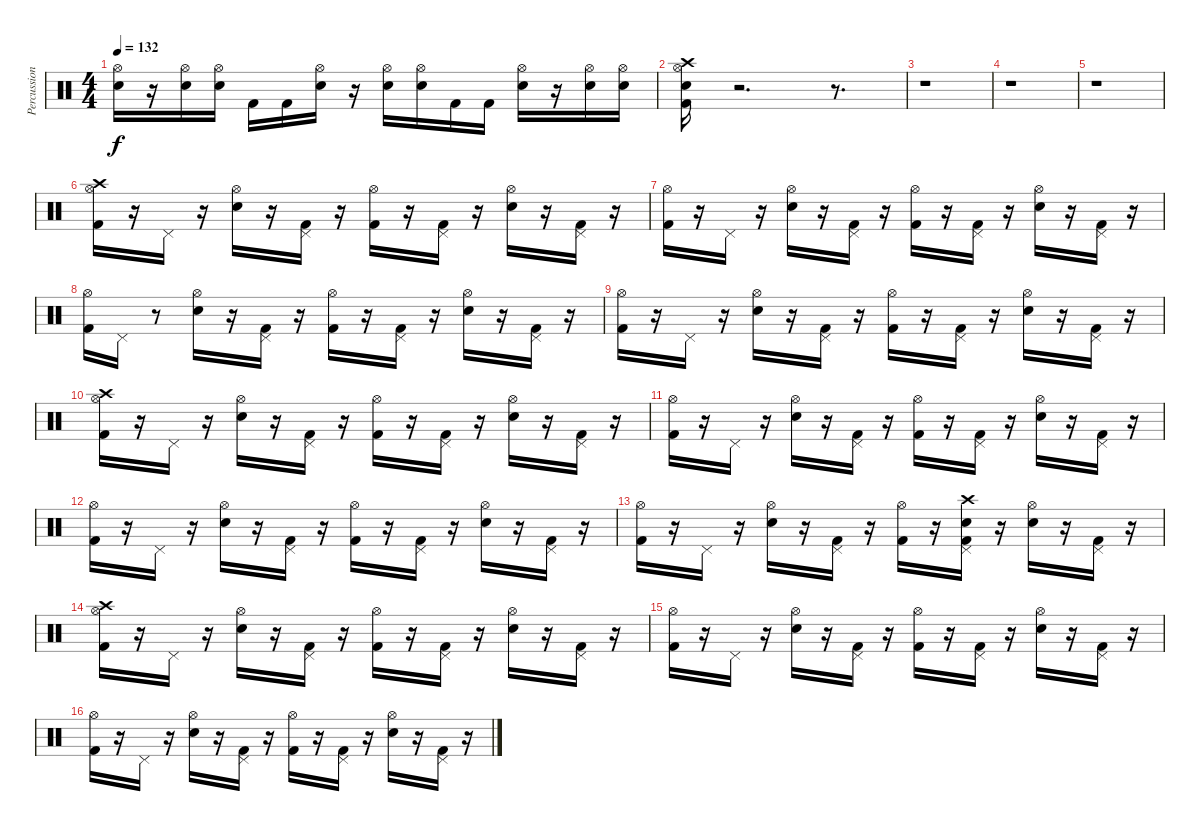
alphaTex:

\track ("Percussion" "Percussion") {instrument percussion}
\staff {score}
\articulation defaults
\ts (4 4)
\tempo 132
\clef neutral
\ks c
("Hi-Hat (open)" "Snare (hit) 2").16{dy f} r.16 ("Hi-Hat (open)" "Snare (hit) 2").16 ("Hi-Hat (open)" "Snare (hit) 2").16 "Kick (hit) 2".16 "Kick (hit) 2".16 ("Snare (hit) 2" "Hi-Hat (open)").16 r.16 ("Snare (hit) 2" "Hi-Hat (open)").16 ("Snare (hit) 2" "Hi-Hat (open)").16 "Kick (hit) 2".16 "Kick (hit) 2".16 ("Snare (hit) 2" "Hi-Hat (open)").16 r.16 ("Snare (hit) 2" "Hi-Hat (open)").16 ("Snare (hit) 2" "Hi-Hat (open)").16 |
("Hi-Hat (open)" "Crash high (hit)" "Kick (hit) 2" "Snare (hit) 2").16 r.2{d} r.8{d} |
r.1 |
r.1 |
r.1 |
("Crash high (hit)" "Kick (hit) 2" "Hi-Hat (open)").16 r.16 "Pedal Hi-Hat (hit)".16 r.16 ("Hi-Hat (open)" "Snare (hit) 2").16 r.16 ("Pedal Hi-Hat (hit)" "Kick (hit) 2").16 r.16 ("Hi-Hat (open)" "Kick (hit) 2").16 r.16 ("Pedal Hi-Hat (hit)" "Kick (hit) 2").16 r.16 ("Hi-Hat (open)" "Snare (hit) 2").16 r.16 ("Pedal Hi-Hat (hit)" "Kick (hit) 2").16 r.16 |
("Hi-Hat (open)" "Kick (hit) 2").16 r.16 "Pedal Hi-Hat (hit)".16 r.16 ("Hi-Hat (open)" "Snare (hit) 2").16 r.16 ("Pedal Hi-Hat (hit)" "Kick (hit) 2").16 r.16 ("Hi-Hat (open)" "Kick (hit) 2").16 r.16 ("Pedal Hi-Hat (hit)" "Kick (hit) 2").16 r.16 ("Hi-Hat (open)" "Snare (hit) 2").16 r.16 ("Pedal Hi-Hat (hit)" "Kick (hit) 2").16 r.16 |
("Hi-Hat (open)" "Kick (hit) 2").16 "Pedal Hi-Hat (hit)".16 r.8 ("Hi-Hat (open)" "Snare (hit) 2").16 r.16 ("Pedal Hi-Hat (hit)" "Kick (hit) 2").16 r.16 ("Hi-Hat (open)" "Kick (hit) 2").16 r.16 ("Pedal Hi-Hat (hit)" "Kick (hit) 2").16 r.16 ("Hi-Hat (open)" "Snare (hit) 2").16 r.16 ("Pedal Hi-Hat (hit)" "Kick (hit) 2").16 r.16 |
("Hi-Hat (open)" "Kick (hit) 2").16 r.16 "Pedal Hi-Hat (hit)".16 r.16 ("Hi-Hat (open)" "Snare (hit) 2").16 r.16 ("Pedal Hi-Hat (hit)" "Kick (hit) 2").16 r.16 ("Hi-Hat (open)" "Kick (hit) 2").16 r.16 ("Pedal Hi-Hat (hit)" "Kick (hit) 2").16 r.16 ("Hi-Hat (open)" "Snare (hit) 2").16 r.16 ("Pedal Hi-Hat (hit)" "Kick (hit) 2").16 r.16 |
("Kick (hit) 2" "Crash high (hit)" "Hi-Hat (open)").16 r.16 "Pedal Hi-Hat (hit)".16 r.16 ("Snare (hit) 2" "Hi-Hat (open)").16 r.16 ("Kick (hit) 2" "Pedal Hi-Hat (hit)").16 r.16 ("Kick (hit) 2" "Hi-Hat (open)").16 r.16 ("Kick (hit) 2" "Pedal Hi-Hat (hit)").16 r.16 ("Snare (hit) 2" "Hi-Hat (open)").16 r.16 ("Kick (hit) 2" "Pedal Hi-Hat (hit)").16 r.16 |
("Kick (hit) 2" "Hi-Hat (open)").16 r.16 "Pedal Hi-Hat (hit)".16 r.16 ("Snare (hit) 2" "Hi-Hat (open)").16 r.16 ("Kick (hit) 2" "Pedal Hi-Hat (hit)").16 r.16 ("Kick (hit) 2" "Hi-Hat (open)").16 r.16 ("Kick (hit) 2" "Pedal Hi-Hat (hit)").16 r.16 ("Snare (hit) 2" "Hi-Hat (open)").16 r.16 ("Kick (hit) 2" "Pedal Hi-Hat (hit)").16 r.16 |
("Kick (hit) 2" "Hi-Hat (open)").16 r.16 "Pedal Hi-Hat (hit)".16 r.16 ("Snare (hit) 2" "Hi-Hat (open)").16 r.16 ("Kick (hit) 2" "Pedal Hi-Hat (hit)").16 r.16 ("Kick (hit) 2" "Hi-Hat (open)").16 r.16 ("Kick (hit) 2" "Pedal Hi-Hat (hit)").16 r.16 ("Snare (hit) 2" "Hi-Hat (open)").16 r.16 ("Kick (hit) 2" "Pedal Hi-Hat (hit)").16 r.16 |
("Kick (hit) 2" "Hi-Hat (open)").16 r.16 "Pedal Hi-Hat (hit)".16 r.16 ("Snare (hit) 2" "Hi-Hat (open)").16 r.16 ("Kick (hit) 2" "Pedal Hi-Hat (hit)").16 r.16 ("Kick (hit) 2" "Hi-Hat (open)").16 r.16 ("Kick (hit) 2" "Pedal Hi-Hat (hit)" "Electric Snare (hit)" "Crash high (hit)").16 r.16 ("Snare (hit) 2" "Hi-Hat (open)").16 r.16 ("Kick (hit) 2" "Pedal Hi-Hat (hit)").16 r.16 |
("Kick (hit) 2" "Crash high (hit)" "Hi-Hat (open)").16 r.16 "Pedal Hi-Hat (hit)".16 r.16 ("Snare (hit) 2" "Hi-Hat (open)").16 r.16 ("Kick (hit) 2" "Pedal Hi-Hat (hit)").16 r.16 ("Kick (hit) 2" "Hi-Hat (open)").16 r.16 ("Kick (hit) 2" "Pedal Hi-Hat (hit)").16 r.16 ("Snare (hit) 2" "Hi-Hat (open)").16 r.16 ("Kick (hit) 2" "Pedal Hi-Hat (hit)").16 r.16 |
("Kick (hit) 2" "Hi-Hat (open)").16 r.16 "Pedal Hi-Hat (hit)".16 r.16 ("Snare (hit) 2" "Hi-Hat (open)").16 r.16 ("Kick (hit) 2" "Pedal Hi-Hat (hit)").16 r.16 ("Kick (hit) 2" "Hi-Hat (open)").16 r.16 ("Kick (hit) 2" "Pedal Hi-Hat (hit)").16 r.16 ("Snare (hit) 2" "Hi-Hat (open)").16 r.16 ("Kick (hit) 2" "Pedal Hi-Hat (hit)").16 r.16 |
("Kick (hit) 2" "Hi-Hat (open)").16 r.16 "Pedal Hi-Hat (hit)".16 r.16 ("Snare (hit) 2" "Hi-Hat (open)").16 r.16 ("Kick (hit) 2" "Pedal Hi-Hat (hit)").16 r.16 ("Kick (hit) 2" "Hi-Hat (open)").16 r.16 ("Kick (hit) 2" "Pedal Hi-Hat (hit)").16 r.16 ("Snare (hit) 2" "Hi-Hat (open)").16 r.16 ("Kick (hit) 2" "Pedal Hi-Hat (hit)").16 r.16
